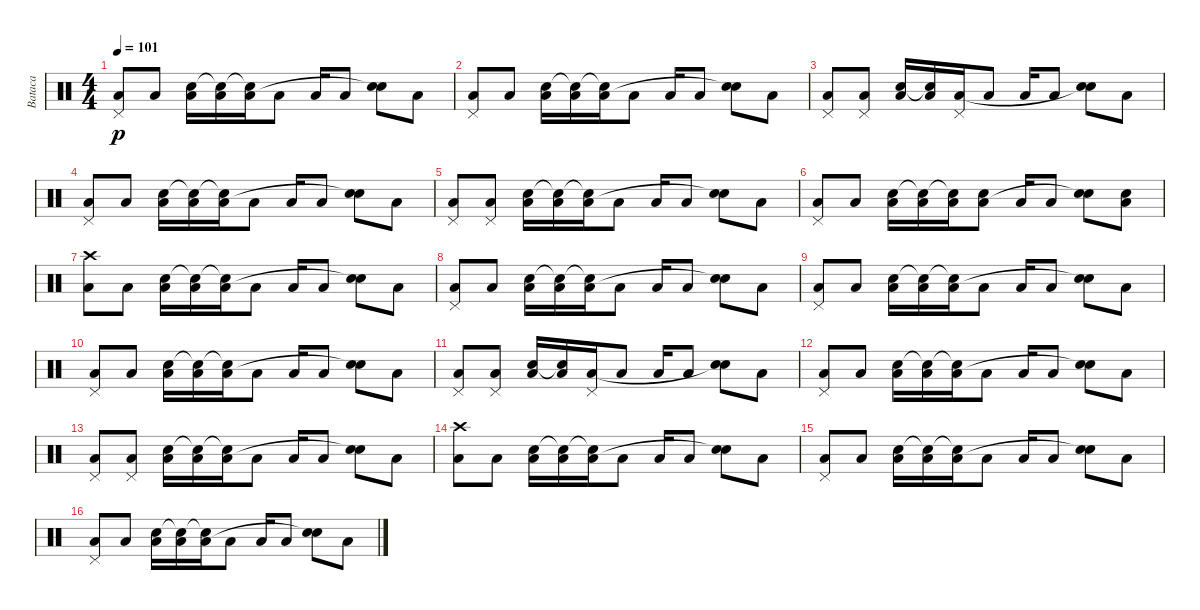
\track ("Bataca" "Bataca") {instrument percussion}
\staff {score}
\articulation defaults
\ts (4 4)
\tempo 101
\clef neutral
\ks c
("Pedal Hi-Hat (hit)" "Low Tom (hit)").8{dy p} "Low Tom (hit)".8 ("Snare (hit) 2" "Low Floor Tom (hit)").16 ("Snare (hit)"{t} "Low Floor Tom (hit)").16 ("Snare (hit)"{t} "Low Tom (hit)").16 "Low Tom (hit)".8 "Low Floor Tom (hit)".16 "Low Floor Tom (hit)".8 ("Snare (hit) 2" "Snare (hit)"{t}).8 "Low Floor Tom (hit)".8 |
("Pedal Hi-Hat (hit)" "Low Tom (hit)").8 "Low Tom (hit)".8 ("Snare (hit) 2" "Low Floor Tom (hit)").16 ("Snare (hit)"{t} "Low Floor Tom (hit)").16 ("Snare (hit)"{t} "Low Tom (hit)").16 "Low Tom (hit)".8 "Low Floor Tom (hit)".16 "Low Floor Tom (hit)".8 ("Snare (hit) 2" "Snare (hit)"{t}).8 "Low Floor Tom (hit)".8 |
("Pedal Hi-Hat (hit)" "Low Tom (hit)").8 ("Pedal Hi-Hat (hit)" "Low Tom (hit)").8 ("Snare (hit) 2" "Low Floor Tom (hit)").16 ("Snare (hit)"{t} "Low Floor Tom (hit)").16 ("Pedal Hi-Hat (hit)" "Low Tom (hit)").16 "Low Tom (hit)".8 "Low Floor Tom (hit)".16 "Low Floor Tom (hit)".8 ("Snare (hit) 2" "Snare (hit)"{t}).8 "Low Floor Tom (hit)".8 |
("Pedal Hi-Hat (hit)" "Low Tom (hit)").8 "Low Tom (hit)".8 ("Snare (hit) 2" "Low Floor Tom (hit)").16 ("Snare (hit)"{t} "Low Floor Tom (hit)").16 ("Snare (hit)"{t} "Low Tom (hit)").16 "Low Tom (hit)".8 "Low Floor Tom (hit)".16 "Low Floor Tom (hit)".8 ("Snare (hit) 2" "Snare (hit)"{t}).8 "Low Floor Tom (hit)".8 |
("Pedal Hi-Hat (hit)" "Low Tom (hit)").8 ("Pedal Hi-Hat (hit)" "Low Tom (hit)").8 ("Snare (hit) 2" "Low Floor Tom (hit)").16 ("Snare (hit)"{t} "Low Floor Tom (hit)").16 ("Snare (hit)"{t} "Low Tom (hit)").16 "Low Tom (hit)".8 "Low Floor Tom (hit)".16 "Low Floor Tom (hit)".8 ("Snare (hit) 2" "Snare (hit)"{t}).8 "Low Floor Tom (hit)".8 |
("Pedal Hi-Hat (hit)" "Low Tom (hit)").8 "Low Tom (hit)".8 ("Snare (hit) 2" "Low Floor Tom (hit)").16 ("Snare (hit)"{t} "Low Floor Tom (hit)").16 ("Snare (hit)"{t} "Low Tom (hit)").16 ("Snare (hit) 2" "Low Tom (hit)").8 "Low Floor Tom (hit)".16 "Low Floor Tom (hit)".8 ("Snare (hit) 2" "Snare (hit)"{t}).8 ("Snare (hit) 2" "Low Floor Tom (hit)").8 |
("Crash high (hit)" "Low Tom (hit)").8 "Low Tom (hit)".8 ("Snare (hit) 2" "Low Floor Tom (hit)").16 ("Snare (hit)"{t} "Low Floor Tom (hit)").16 ("Snare (hit)"{t} "Low Tom (hit)").16 "Low Tom (hit)".8 "Low Floor Tom (hit)".16 "Low Floor Tom (hit)".8 ("Snare (hit) 2" "Snare (hit)"{t}).8 "Low Floor Tom (hit)".8 |
("Pedal Hi-Hat (hit)" "Low Tom (hit)").8 "Low Tom (hit)".8 ("Snare (hit) 2" "Low Floor Tom (hit)").16 ("Snare (hit)"{t} "Low Floor Tom (hit)").16 ("Snare (hit)"{t} "Low Tom (hit)").16 "Low Tom (hit)".8 "Low Floor Tom (hit)".16 "Low Floor Tom (hit)".8 ("Snare (hit) 2" "Snare (hit)"{t}).8 "Low Floor Tom (hit)".8 |
("Pedal Hi-Hat (hit)" "Low Tom (hit)").8 "Low Tom (hit)".8 ("Snare (hit) 2" "Low Floor Tom (hit)").16 ("Snare (hit)"{t} "Low Floor Tom (hit)").16 ("Snare (hit)"{t} "Low Tom (hit)").16 "Low Tom (hit)".8 "Low Floor Tom (hit)".16 "Low Floor Tom (hit)".8 ("Snare (hit) 2" "Snare (hit)"{t}).8 "Low Floor Tom (hit)".8 |
("Pedal Hi-Hat (hit)" "Low Tom (hit)").8 "Low Tom (hit)".8 ("Snare (hit) 2" "Low Floor Tom (hit)").16 ("Snare (hit)"{t} "Low Floor Tom (hit)").16 ("Snare (hit)"{t} "Low Tom (hit)").16 "Low Tom (hit)".8 "Low Floor Tom (hit)".16 "Low Floor Tom (hit)".8 ("Snare (hit) 2" "Snare (hit)"{t}).8 "Low Floor Tom (hit)".8 |
("Pedal Hi-Hat (hit)" "Low Tom (hit)").8 ("Pedal Hi-Hat (hit)" "Low Tom (hit)").8 ("Snare (hit) 2" "Low Floor Tom (hit)").16 ("Snare (hit)"{t} "Low Floor Tom (hit)").16 ("Pedal Hi-Hat (hit)" "Low Tom (hit)").16 "Low Tom (hit)".8 "Low Floor Tom (hit)".16 "Low Floor Tom (hit)".8 ("Snare (hit) 2" "Snare (hit)"{t}).8 "Low Floor Tom (hit)".8 |
("Pedal Hi-Hat (hit)" "Low Tom (hit)").8 "Low Tom (hit)".8 ("Snare (hit) 2" "Low Floor Tom (hit)").16 ("Snare (hit)"{t} "Low Floor Tom (hit)").16 ("Snare (hit)"{t} "Low Tom (hit)").16 "Low Tom (hit)".8 "Low Floor Tom (hit)".16 "Low Floor Tom (hit)".8 ("Snare (hit) 2" "Snare (hit)"{t}).8 "Low Floor Tom (hit)".8 |
("Pedal Hi-Hat (hit)" "Low Tom (hit)").8 ("Pedal Hi-Hat (hit)" "Low Tom (hit)").8 ("Snare (hit) 2" "Low Floor Tom (hit)").16 ("Snare (hit)"{t} "Low Floor Tom (hit)").16 ("Snare (hit)"{t} "Low Tom (hit)").16 "Low Tom (hit)".8 "Low Floor Tom (hit)".16 "Low Floor Tom (hit)".8 ("Snare (hit) 2" "Snare (hit)"{t}).8 "Low Floor Tom (hit)".8 |
("Crash high (hit)" "Low Tom (hit)").8 "Low Tom (hit)".8 ("Snare (hit) 2" "Low Floor Tom (hit)").16 ("Snare (hit)"{t} "Low Floor Tom (hit)").16 ("Snare (hit)"{t} "Low Tom (hit)").16 "Low Tom (hit)".8 "Low Floor Tom (hit)".16 "Low Floor Tom (hit)".8 ("Snare (hit) 2" "Snare (hit)"{t}).8 "Low Floor Tom (hit)".8 |
("Pedal Hi-Hat (hit)" "Low Tom (hit)").8 "Low Tom (hit)".8 ("Snare (hit) 2" "Low Floor Tom (hit)").16 ("Snare (hit)"{t} "Low Floor Tom (hit)").16 ("Snare (hit)"{t} "Low Tom (hit)").16 "Low Tom (hit)".8 "Low Floor Tom (hit)".16 "Low Floor Tom (hit)".8 ("Snare (hit) 2" "Snare (hit)"{t}).8 "Low Floor Tom (hit)".8 |
("Pedal Hi-Hat (hit)" "Low Tom (hit)").8 "Low Tom (hit)".8 ("Snare (hit) 2" "Low Floor Tom (hit)").16 ("Snare (hit)"{t} "Low Floor Tom (hit)").16 ("Snare (hit)"{t} "Low Tom (hit)").16 "Low Tom (hit)".8 "Low Floor Tom (hit)".16 "Low Floor Tom (hit)".8 ("Snare (hit) 2" "Snare (hit)"{t}).8 "Low Floor Tom (hit)".8
